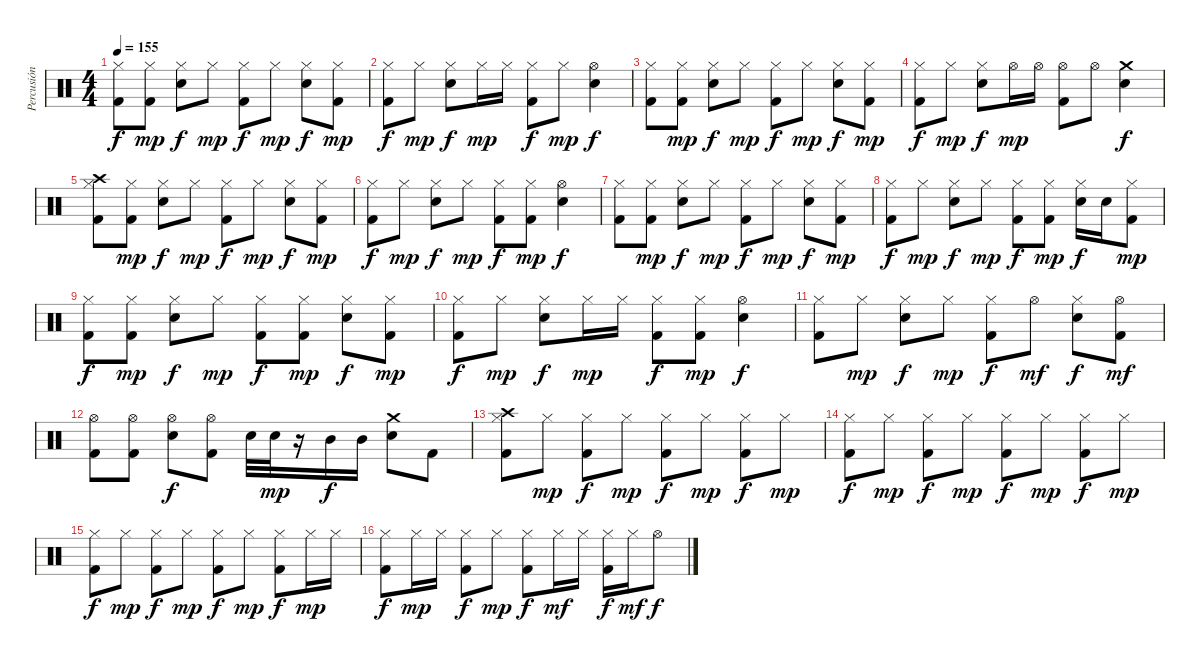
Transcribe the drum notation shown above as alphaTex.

\track ("Percusión" "Percusión") {instrument percussion}
\staff {score}
\articulation defaults
\ts (4 4)
\tempo 155
\clef neutral
\ks c
("Hi-Hat (closed)" "Kick (hit) 2").8{dy f} ("Hi-Hat (closed)" "Kick (hit) 2").8{dy mp} ("Hi-Hat (closed)" "Snare (hit) 2").8{dy f} "Hi-Hat (closed)".8{dy mp} ("Hi-Hat (closed)" "Kick (hit) 2").8{dy f} "Hi-Hat (closed)".8{dy mp} ("Hi-Hat (closed)" "Snare (hit) 2").8{dy f} ("Hi-Hat (closed)" "Kick (hit) 2").8{dy mp} |
("Hi-Hat (closed)" "Kick (hit) 2").8{dy f} "Hi-Hat (closed)".8{dy mp} ("Hi-Hat (closed)" "Snare (hit) 2").8{dy f} "Hi-Hat (closed)".16{dy mp} "Hi-Hat (closed)".16 ("Hi-Hat (closed)" "Kick (hit) 2").8{dy f} "Hi-Hat (closed)".8{dy mp} ("Hi-Hat (open)" "Snare (hit) 2").4{dy f} |
("Hi-Hat (closed)" "Kick (hit) 2").8 ("Hi-Hat (closed)" "Kick (hit) 2").8{dy mp} ("Hi-Hat (closed)" "Snare (hit) 2").8{dy f} "Hi-Hat (closed)".8{dy mp} ("Hi-Hat (closed)" "Kick (hit) 2").8{dy f} "Hi-Hat (closed)".8{dy mp} ("Hi-Hat (closed)" "Snare (hit) 2").8{dy f} ("Hi-Hat (closed)" "Kick (hit) 2").8{dy mp} |
("Hi-Hat (closed)" "Kick (hit) 2").8{dy f} "Hi-Hat (closed)".8{dy mp} ("Hi-Hat (closed)" "Snare (hit) 2").8{dy f} "Hi-Hat (open)".16{dy mp} "Hi-Hat (open)".16 ("Hi-Hat (open)" "Kick (hit) 2").8 "Hi-Hat (open)".8 ("Crash medium (hit)" "Snare (hit) 2").4{dy f} |
("Crash high (hit)" "Hi-Hat (closed)" "Kick (hit) 2").8 ("Hi-Hat (closed)" "Kick (hit) 2").8{dy mp} ("Hi-Hat (closed)" "Snare (hit) 2").8{dy f} "Hi-Hat (closed)".8{dy mp} ("Hi-Hat (closed)" "Kick (hit) 2").8{dy f} "Hi-Hat (closed)".8{dy mp} ("Hi-Hat (closed)" "Snare (hit) 2").8{dy f} ("Hi-Hat (closed)" "Kick (hit) 2").8{dy mp} |
("Hi-Hat (closed)" "Kick (hit) 2").8{dy f} "Hi-Hat (closed)".8{dy mp} ("Hi-Hat (closed)" "Snare (hit) 2").8{dy f} "Hi-Hat (closed)".8{dy mp} ("Hi-Hat (closed)" "Kick (hit) 2").8{dy f} ("Hi-Hat (closed)" "Kick (hit) 2").8{dy mp} ("Hi-Hat (open)" "Snare (hit) 2").4{dy f} |
("Hi-Hat (closed)" "Kick (hit) 2").8 ("Hi-Hat (closed)" "Kick (hit) 2").8{dy mp} ("Hi-Hat (closed)" "Snare (hit) 2").8{dy f} "Hi-Hat (closed)".8{dy mp} ("Hi-Hat (closed)" "Kick (hit) 2").8{dy f} "Hi-Hat (closed)".8{dy mp} ("Hi-Hat (closed)" "Snare (hit) 2").8{dy f} ("Hi-Hat (closed)" "Kick (hit) 2").8{dy mp} |
("Hi-Hat (closed)" "Kick (hit) 2").8{dy f} "Hi-Hat (closed)".8{dy mp} ("Hi-Hat (closed)" "Snare (hit) 2").8{dy f} "Hi-Hat (closed)".8{dy mp} ("Hi-Hat (closed)" "Kick (hit) 2").8{dy f} ("Hi-Hat (closed)" "Kick (hit) 2").8{dy mp} ("Hi-Hat (closed)" "Snare (hit) 2").16{dy f} "Snare (hit) 2".16 ("Hi-Hat (closed)" "Kick (hit) 2").8{dy mp} |
("Hi-Hat (closed)" "Kick (hit) 2").8{dy f} ("Hi-Hat (closed)" "Kick (hit) 2").8{dy mp} ("Hi-Hat (closed)" "Snare (hit) 2").8{dy f} "Hi-Hat (closed)".8{dy mp} ("Hi-Hat (closed)" "Kick (hit) 2").8{dy f} ("Hi-Hat (closed)" "Kick (hit) 2").8{dy mp} ("Hi-Hat (closed)" "Snare (hit) 2").8{dy f} ("Hi-Hat (closed)" "Kick (hit) 2").8{dy mp} |
("Hi-Hat (closed)" "Kick (hit) 2").8{dy f} "Hi-Hat (closed)".8{dy mp} ("Hi-Hat (closed)" "Snare (hit) 2").8{dy f} "Hi-Hat (closed)".16{dy mp} "Hi-Hat (closed)".16 ("Hi-Hat (closed)" "Kick (hit) 2").8{dy f} ("Hi-Hat (closed)" "Kick (hit) 2").8{dy mp} ("Hi-Hat (open)" "Snare (hit) 2").4{dy f} |
("Hi-Hat (closed)" "Kick (hit) 2").8 "Hi-Hat (closed)".8{dy mp} ("Hi-Hat (closed)" "Snare (hit) 2").8{dy f} "Hi-Hat (closed)".8{dy mp} ("Hi-Hat (closed)" "Kick (hit) 2").8{dy f} "Hi-Hat (open)".8{dy mf} ("Hi-Hat (closed)" "Snare (hit) 2").8{dy f} ("Hi-Hat (open)" "Kick (hit) 2").8{dy mf} |
("Hi-Hat (open)" "Kick (hit) 2").8 ("Hi-Hat (open)" "Kick (hit) 2").8 ("Hi-Hat (open)" "Snare (hit) 2").8{dy f} ("Hi-Hat (open)" "Kick (hit) 2").8 "Snare (hit) 2".32 "Snare (hit) 2".32{dy mp} r.16 "Mid Tom (hit)".16{dy f} "Mid Tom (hit)".16 ("Crash medium (hit)" "Snare (hit) 2").8 "Kick (hit) 2".8 |
("Crash high (hit)" "Hi-Hat (closed)" "Kick (hit) 2").8 "Hi-Hat (closed)".8{dy mp} ("Hi-Hat (closed)" "Kick (hit) 2").8{dy f} "Hi-Hat (closed)".8{dy mp} ("Hi-Hat (closed)" "Kick (hit) 2").8{dy f} "Hi-Hat (closed)".8{dy mp} ("Hi-Hat (closed)" "Kick (hit) 2").8{dy f} "Hi-Hat (closed)".8{dy mp} |
("Hi-Hat (closed)" "Kick (hit) 2").8{dy f} "Hi-Hat (closed)".8{dy mp} ("Hi-Hat (closed)" "Kick (hit) 2").8{dy f} "Hi-Hat (closed)".8{dy mp} ("Hi-Hat (closed)" "Kick (hit) 2").8{dy f} "Hi-Hat (closed)".8{dy mp} ("Hi-Hat (closed)" "Kick (hit) 2").8{dy f} "Hi-Hat (closed)".8{dy mp} |
("Hi-Hat (closed)" "Kick (hit) 2").8{dy f} "Hi-Hat (closed)".8{dy mp} ("Hi-Hat (closed)" "Kick (hit) 2").8{dy f} "Hi-Hat (closed)".8{dy mp} ("Hi-Hat (closed)" "Kick (hit) 2").8{dy f} "Hi-Hat (closed)".8{dy mp} ("Hi-Hat (closed)" "Kick (hit) 2").8{dy f} "Hi-Hat (closed)".16{dy mp} "Hi-Hat (closed)".16 |
("Hi-Hat (closed)" "Kick (hit) 2").8{dy f} "Hi-Hat (closed)".16{dy mp} "Hi-Hat (closed)".16 ("Hi-Hat (closed)" "Kick (hit) 2").8{dy f} "Hi-Hat (closed)".8{dy mp} ("Hi-Hat (closed)" "Kick (hit) 2").8{dy f} "Hi-Hat (closed)".16{dy mf} "Hi-Hat (closed)".16 ("Hi-Hat (closed)" "Kick (hit) 2").16{dy f} "Hi-Hat (closed)".16{dy mf} "Hi-Hat (open)".8{dy f}
